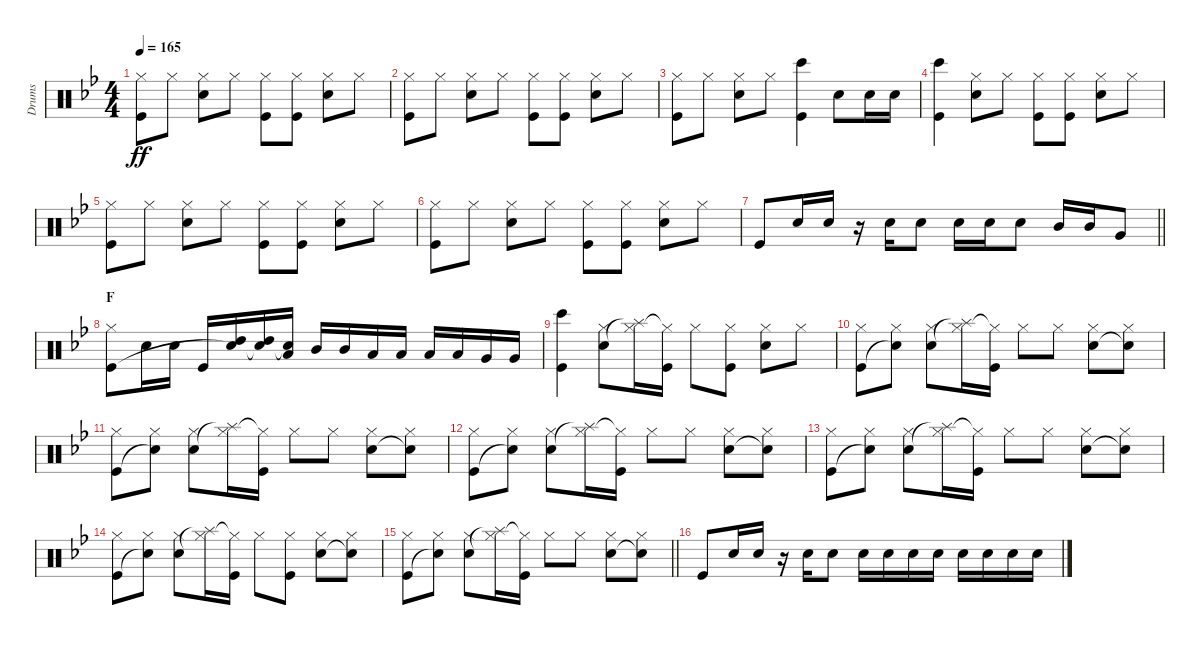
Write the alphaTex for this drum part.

\track ("Drums" "Drums") {instrument percussion}
\staff {score}
\articulation defaults
\ts (4 4)
\tempo 165
\clef neutral
\ks bb
("Hi-Hat (closed)" "Kick (hit)").8{dy ff} "Hi-Hat (closed)".8 ("Hi-Hat (closed)" "Snare (hit) 2").8 "Hi-Hat (closed)".8 ("Hi-Hat (closed)" "Kick (hit)").8 ("Hi-Hat (closed)" "Kick (hit)").8 ("Hi-Hat (closed)" "Snare (hit) 2").8 "Hi-Hat (closed)".8 |
("Hi-Hat (closed)" "Kick (hit)").8 "Hi-Hat (closed)".8 ("Hi-Hat (closed)" "Snare (hit) 2").8 "Hi-Hat (closed)".8 ("Hi-Hat (closed)" "Kick (hit)").8 ("Hi-Hat (closed)" "Kick (hit)").8 ("Hi-Hat (closed)" "Snare (hit) 2").8 "Hi-Hat (closed)".8 |
("Hi-Hat (closed)" "Kick (hit)").8 "Hi-Hat (closed)".8 ("Hi-Hat (closed)" "Snare (hit) 2").8 "Hi-Hat (closed)".8 ("Bongo High (hit)" "Kick (hit)").4 "Snare (hit) 2".8 "Snare (hit) 2".16 "Snare (hit) 2".16 |
("Bongo High (hit)" "Kick (hit)").4 ("Hi-Hat (closed)" "Snare (hit) 2").8 "Hi-Hat (closed)".8 ("Hi-Hat (closed)" "Kick (hit)").8 ("Hi-Hat (closed)" "Kick (hit)").8 ("Hi-Hat (closed)" "Snare (hit) 2").8 "Hi-Hat (closed)".8 |
("Hi-Hat (closed)" "Kick (hit)").8 "Hi-Hat (closed)".8 ("Hi-Hat (closed)" "Snare (hit) 2").8 "Hi-Hat (closed)".8 ("Hi-Hat (closed)" "Kick (hit)").8 ("Hi-Hat (closed)" "Kick (hit)").8 ("Hi-Hat (closed)" "Snare (hit) 2").8 "Hi-Hat (closed)".8 |
("Hi-Hat (closed)" "Kick (hit)").8 "Hi-Hat (closed)".8 ("Hi-Hat (closed)" "Snare (hit) 2").8 "Hi-Hat (closed)".8 ("Hi-Hat (closed)" "Kick (hit)").8 ("Hi-Hat (closed)" "Kick (hit)").8 ("Hi-Hat (closed)" "Snare (hit) 2").8 "Hi-Hat (closed)".8 |
\barLineRight lightlight "Kick (hit)".8 "Snare (hit) 2".16 "Snare (hit) 2".16
r.16 "Snare (hit) 2".16 "Snare (hit) 2".8 "Snare (hit) 2".16 "Snare (hit) 2".16 "Snare (hit) 2".8 "Mid Tom (hit)".16 "Mid Tom (hit)".16 "Very Low Tom (hit)".8 |
\section ("" "F")
("Hi-Hat (closed)" "Kick (hit)").8 "Snare (hit) 2".16 "Snare (hit) 2".16 "Kick (hit)".16 ("High Tom (hit)" "Snare (hit)"{t}).16 ("High Tom (hit)" "Snare (hit)"{t}).16 ("Low Tom (hit)" "Snare (hit)"{t}).16 "Mid Tom (hit)".16 "Mid Tom (hit)".16 "Low Tom (hit)".16 "Low Tom (hit)".16 "Low Tom (hit)".16 "Low Tom (hit)".16 "Very Low Tom (hit)".16 "Very Low Tom (hit)".16 |
("Bongo High (hit)" "Kick (hit)").4 ("Hi-Hat (closed)" "Snare (hit) 2").8 ("Hi-Hat (closed)" "Splash (hit)"{t}).16 ("Hi-Hat (closed)"{t} "Kick (hit)").16 "Hi-Hat (closed)".8 ("Hi-Hat (closed)" "Kick (hit)").8 ("Hi-Hat (closed)" "Snare (hit) 2").8 "Hi-Hat (closed)".8 |
("Hi-Hat (closed)" "Kick (hit)").8 ("Hi-Hat (closed)" "Snare (hit)"{t}).8 ("Hi-Hat (closed)" "Snare (hit) 2").8 ("Hi-Hat (closed)" "Splash (hit)"{t}).16 ("Hi-Hat (closed)"{t} "Kick (hit)").16 "Hi-Hat (closed)".8 "Hi-Hat (closed)".8 ("Hi-Hat (closed)" "Snare (hit) 2").8 ("Hi-Hat (closed)" "Snare (hit) 2"{t}).8 |
("Hi-Hat (closed)" "Kick (hit)").8 ("Hi-Hat (closed)" "Snare (hit)"{t}).8 ("Hi-Hat (closed)" "Snare (hit) 2").8 ("Hi-Hat (closed)" "Splash (hit)"{t}).16 ("Hi-Hat (closed)"{t} "Kick (hit)").16 "Hi-Hat (closed)".8 "Hi-Hat (closed)".8 ("Hi-Hat (closed)" "Snare (hit) 2").8 ("Hi-Hat (closed)" "Snare (hit) 2"{t}).8 |
("Hi-Hat (closed)" "Kick (hit)").8 ("Hi-Hat (closed)" "Snare (hit)"{t}).8 ("Hi-Hat (closed)" "Snare (hit) 2").8 ("Hi-Hat (closed)" "Splash (hit)"{t}).16 ("Hi-Hat (closed)"{t} "Kick (hit)").16 "Hi-Hat (closed)".8 "Hi-Hat (closed)".8 ("Hi-Hat (closed)" "Snare (hit) 2").8 ("Hi-Hat (closed)" "Snare (hit) 2"{t}).8 |
("Hi-Hat (closed)" "Kick (hit)").8 ("Hi-Hat (closed)" "Snare (hit)"{t}).8 ("Hi-Hat (closed)" "Snare (hit) 2").8 ("Hi-Hat (closed)" "Splash (hit)"{t}).16 ("Hi-Hat (closed)"{t} "Kick (hit)").16 "Hi-Hat (closed)".8 "Hi-Hat (closed)".8 ("Hi-Hat (closed)" "Snare (hit) 2").8 ("Hi-Hat (closed)" "Snare (hit) 2"{t}).8 |
("Hi-Hat (closed)" "Kick (hit)").8 ("Hi-Hat (closed)" "Snare (hit)"{t}).8 ("Hi-Hat (closed)" "Snare (hit) 2").8 ("Hi-Hat (closed)" "Splash (hit)"{t}).16 ("Hi-Hat (closed)"{t} "Kick (hit)").16 "Hi-Hat (closed)".8 ("Hi-Hat (closed)" "Kick (hit)").8 ("Hi-Hat (closed)" "Snare (hit) 2").8 ("Hi-Hat (closed)" "Snare (hit) 2"{t}).8 |
\barLineRight lightlight
("Hi-Hat (closed)" "Kick (hit)").8 ("Hi-Hat (closed)" "Snare (hit)"{t}).8 ("Hi-Hat (closed)" "Snare (hit) 2").8 ("Hi-Hat (closed)" "Splash (hit)"{t}).16 ("Hi-Hat (closed)"{t} "Kick (hit)").16 "Hi-Hat (closed)".8 "Hi-Hat (closed)".8 ("Hi-Hat (closed)" "Snare (hit) 2").8 ("Hi-Hat (closed)" "Snare (hit) 2"{t}).8 |
"Kick (hit)".8 "Snare (hit) 2".16 "Snare (hit) 2".16 r.16 "Snare (hit) 2".16 "Snare (hit) 2".8 "Snare (hit) 2".16 "Snare (hit) 2".16 "Snare (hit) 2".16 "Snare (hit) 2".16 "Snare (hit) 2".16 "Snare (hit) 2".16 "Snare (hit) 2".16 "Snare (hit) 2".16
